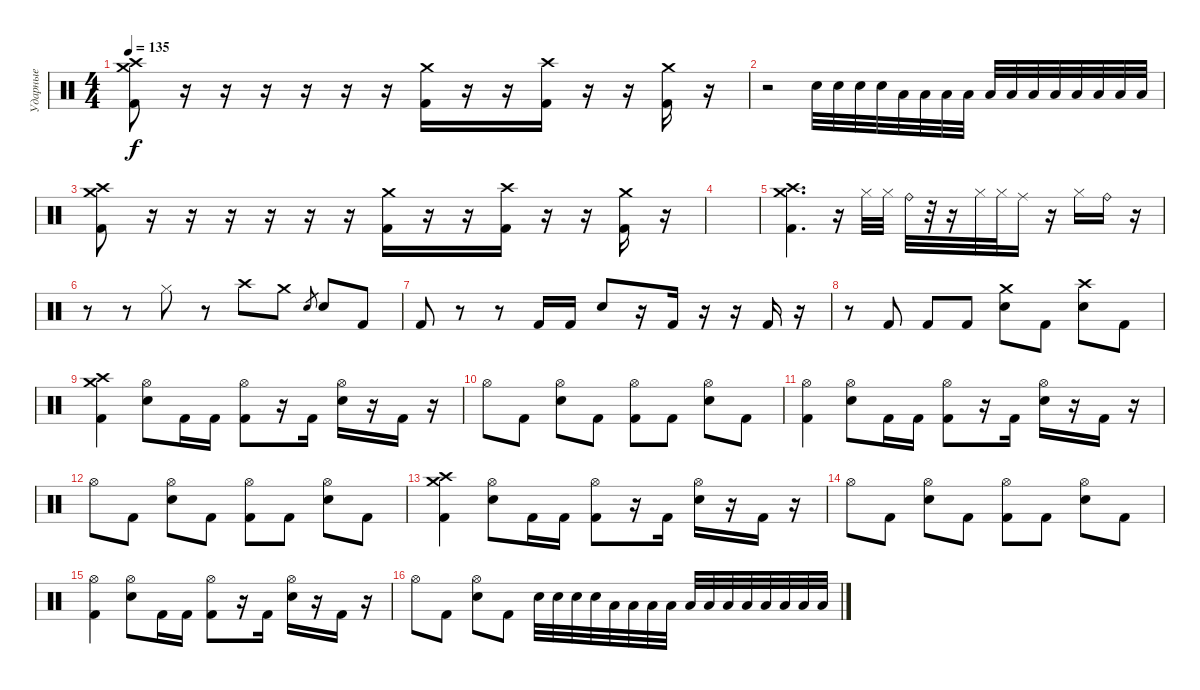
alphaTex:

\track ("Ударные" "Ударные") {instrument percussion}
\staff {score}
\articulation defaults
\ts (4 4)
\tempo 135
\clef neutral
\ks c
("Crash medium (hit)" "Crash high (hit)" "Kick (hit) 2").8{dy f} r.16 r.16 r.16 r.16 r.16 r.16 ("Crash medium (hit)" "Kick (hit) 2").16 r.16 r.16 ("Crash high (hit)" "Kick (hit) 2").16 r.16 r.16 ("Crash medium (hit)" "Kick (hit) 2").16 r.16 |
r.2 "Electric Snare (hit)".32 "Electric Snare (hit)".32 "Electric Snare (hit)".32 "Electric Snare (hit)".32 "Low Tom (hit)".32 "Low Tom (hit)".32 "Low Floor Tom (hit)".32 "Low Floor Tom (hit)".32 "Low Tom (hit)".32 "Low Tom (hit)".32 "Low Floor Tom (hit)".32 "Low Floor Tom (hit)".32 "Low Tom (hit)".32 "Low Tom (hit)".32 "Low Floor Tom (hit)".32 "Low Floor Tom (hit)".32 |
("Crash medium (hit)" "Crash high (hit)" "Kick (hit) 2").8 r.16 r.16 r.16 r.16 r.16 r.16 ("Crash medium (hit)" "Kick (hit) 2").16 r.16 r.16 ("Crash high (hit)" "Kick (hit) 2").16 r.16 r.16 ("Crash medium (hit)" "Kick (hit) 2").16 r.16 |
|
("Crash medium (hit)" "Crash high (hit)" "Kick (hit) 2").4{d} r.16 "Hi-Hat (closed)".32 "Hi-Hat (closed)".32 "Ride (bell)".32 r.32 r.16 "Hi-Hat (closed)".32 "Hi-Hat (closed)".32 "Ride (middle)".16 r.16 "Hi-Hat (closed)".16 "Ride (bell)".16 r.16 |
r.8 r.8 "Hi-Hat (closed)".8 r.8 "Crash high (hit)".8 "Crash medium (hit)".8 "Electric Snare (hit)".8{gr} "Electric Snare (hit)".8 "Kick (hit) 2".8 |
"Kick (hit) 2".8 r.8 r.8 "Kick (hit) 2".16 "Kick (hit) 2".16 "Electric Snare (hit)".8 r.16 "Kick (hit) 2".16 r.16 r.16 "Kick (hit) 2".16 r.16 |
r.8 "Kick (hit) 2".8 "Kick (hit) 2".8 "Kick (hit) 2".8 ("Crash medium (hit)" "Electric Snare (hit)").8 "Kick (hit) 2".8 ("Crash high (hit)" "Electric Snare (hit)").8 "Kick (hit) 2".8 |
("Crash medium (hit)" "Crash high (hit)" "Kick (hit) 2").4 ("Hi-Hat (open)" "Electric Snare (hit)").8 "Kick (hit) 2".16 "Kick (hit) 2".16 ("Hi-Hat (open)" "Kick (hit) 2").8 r.16 "Kick (hit) 2".16 ("Hi-Hat (open)" "Electric Snare (hit)").16 r.16 "Kick (hit) 2".16 r.16 |
"Hi-Hat (open)".8 "Kick (hit) 2".8 ("Hi-Hat (open)" "Electric Snare (hit)").8 "Kick (hit) 2".8 ("Hi-Hat (open)" "Kick (hit) 2").8 "Kick (hit) 2".8 ("Hi-Hat (open)" "Electric Snare (hit)").8 "Kick (hit) 2".8 |
("Hi-Hat (open)" "Kick (hit) 2").4 ("Hi-Hat (open)" "Electric Snare (hit)").8 "Kick (hit) 2".16 "Kick (hit) 2".16 ("Hi-Hat (open)" "Kick (hit) 2").8 r.16 "Kick (hit) 2".16 ("Hi-Hat (open)" "Electric Snare (hit)").16 r.16 "Kick (hit) 2".16 r.16 |
"Hi-Hat (open)".8 "Kick (hit) 2".8 ("Hi-Hat (open)" "Electric Snare (hit)").8 "Kick (hit) 2".8 ("Hi-Hat (open)" "Kick (hit) 2").8 "Kick (hit) 2".8 ("Hi-Hat (open)" "Electric Snare (hit)").8 "Kick (hit) 2".8 |
("Crash medium (hit)" "Crash high (hit)" "Kick (hit) 2").4 ("Hi-Hat (open)" "Electric Snare (hit)").8 "Kick (hit) 2".16 "Kick (hit) 2".16 ("Hi-Hat (open)" "Kick (hit) 2").8 r.16 "Kick (hit) 2".16 ("Hi-Hat (open)" "Electric Snare (hit)").16 r.16 "Kick (hit) 2".16 r.16 |
"Hi-Hat (open)".8 "Kick (hit) 2".8 ("Hi-Hat (open)" "Electric Snare (hit)").8 "Kick (hit) 2".8 ("Hi-Hat (open)" "Kick (hit) 2").8 "Kick (hit) 2".8 ("Hi-Hat (open)" "Electric Snare (hit)").8 "Kick (hit) 2".8 |
("Hi-Hat (open)" "Kick (hit) 2").4 ("Hi-Hat (open)" "Electric Snare (hit)").8 "Kick (hit) 2".16 "Kick (hit) 2".16 ("Hi-Hat (open)" "Kick (hit) 2").8 r.16 "Kick (hit) 2".16 ("Hi-Hat (open)" "Electric Snare (hit)").16 r.16 "Kick (hit) 2".16 r.16 |
"Hi-Hat (open)".8 "Kick (hit) 2".8 ("Hi-Hat (open)" "Electric Snare (hit)").8 "Kick (hit) 2".8 "Electric Snare (hit)".32 "Electric Snare (hit)".32 "Electric Snare (hit)".32 "Electric Snare (hit)".32 "Low Tom (hit)".32 "Low Tom (hit)".32 "Low Floor Tom (hit)".32 "Low Floor Tom (hit)".32 "Low Tom (hit)".32 "Low Tom (hit)".32 "Low Floor Tom (hit)".32 "Low Floor Tom (hit)".32 "Low Tom (hit)".32 "Low Tom (hit)".32 "Low Floor Tom (hit)".32 "Low Floor Tom (hit)".32
